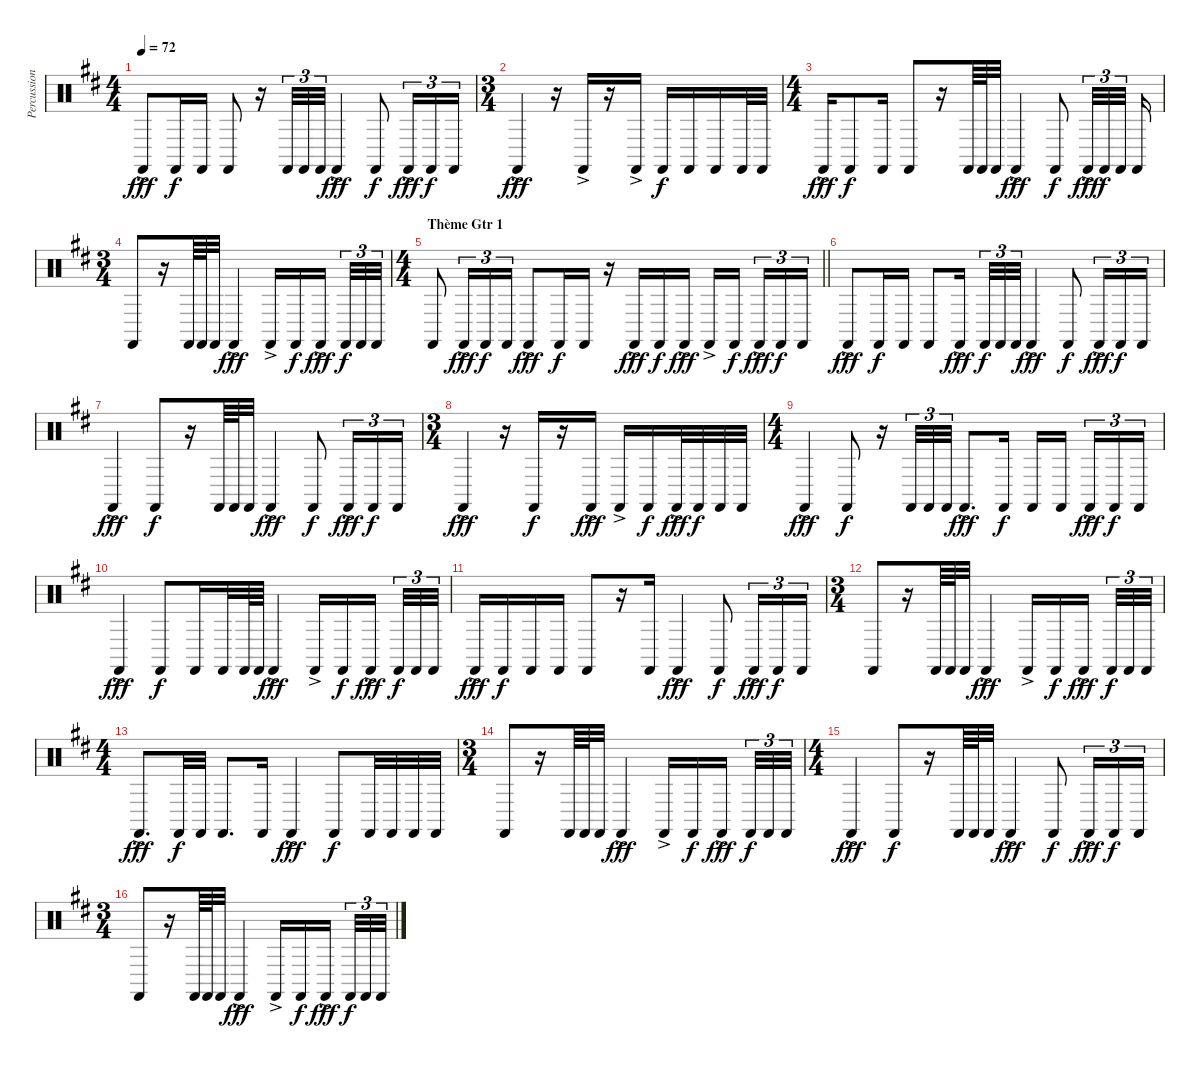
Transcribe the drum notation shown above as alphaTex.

\track ("Percussions" "Percussion") {instrument percussion}
\staff {score}
\articulation defaults
\ts (4 4)
\tempo 72
\clef neutral
\ks bminor "Castanets (hit)"{ac}.8{dy fff} "Castanets (hit)".16{dy f} "Castanets (hit)".16 "Castanets (hit)".8
r.16 "Castanets (hit)".32{tu (3 2)} "Castanets (hit)".32{tu (3 2)} "Castanets (hit)".32{tu (3 2)} "Castanets (hit)"{ac}.4{dy fff} "Castanets (hit)".8{dy f} "Castanets (hit)"{ac}.16{tu (3 2) dy fff} "Castanets (hit)".16{tu (3 2) dy f} "Castanets (hit)".16{tu (3 2)} |
\ts (3 4)
"Castanets (hit)"{ac}.4{dy fff} r.16 "Castanets (hit)"{ac}.16 r.16 "Castanets (hit)"{ac}.16 "Castanets (hit)".16{dy f} "Castanets (hit)".16 "Castanets (hit)".16 "Castanets (hit)".32 "Castanets (hit)".32 |
\ts (4 4)
"Castanets (hit)"{ac}.16{dy fff} "Castanets (hit)".8{dy f} "Castanets (hit)".16 "Castanets (hit)".8 r.16 "Castanets (hit)".64 "Castanets (hit)".64 "Castanets (hit)".32 "Castanets (hit)"{ac}.4{dy fff} "Castanets (hit)".8{dy f} "Castanets (hit)"{ac}.32{tu (3 2) dy fff} "Castanets (hit)".32{tu (3 2) dy f} "Castanets (hit)".32{tu (3 2)} "Castanets (hit)".16 |
\ts (3 4)
"Castanets (hit)".8 r.16 "Castanets (hit)".64 "Castanets (hit)".64 "Castanets (hit)".32 "Castanets (hit)"{ac}.4{dy fff} "Castanets (hit)"{ac}.16 "Castanets (hit)".16{dy f} "Castanets (hit)"{ac}.16{dy fff} "Castanets (hit)".32{tu (3 2) dy f} "Castanets (hit)".32{tu (3 2)} "Castanets (hit)".32{tu (3 2)} |
\ts (4 4)
\section ("" "Thème Gtr 1 ")
\barLineRight lightlight "Castanets (hit)".8{volume 9 balance 8} "Castanets (hit)"{ac}.16{tu (3 2) dy fff} "Castanets (hit)".16{tu (3 2) dy f} "Castanets (hit)".16{tu (3 2)} "Castanets (hit)"{ac}.8{dy fff} "Castanets (hit)".16{dy f} "Castanets (hit)".16
r.16 "Castanets (hit)"{ac}.16{dy fff} "Castanets (hit)".16{dy f} "Castanets (hit)"{ac}.16{dy fff} "Castanets (hit)"{ac}.16 "Castanets (hit)".16{dy f} "Castanets (hit)"{ac}.16{tu (3 2) dy fff} "Castanets (hit)".16{tu (3 2) dy f} "Castanets (hit)".16{tu (3 2)} |
"Castanets (hit)"{ac}.8{dy fff} "Castanets (hit)".16{dy f} "Castanets (hit)".16 "Castanets (hit)".8 "Castanets (hit)"{ac}.16{dy fff} "Castanets (hit)".32{tu (3 2) dy f} "Castanets (hit)".32{tu (3 2)} "Castanets (hit)".32{tu (3 2)} "Castanets (hit)"{ac}.4{dy fff} "Castanets (hit)".8{dy f} "Castanets (hit)"{ac}.16{tu (3 2) dy fff} "Castanets (hit)".16{tu (3 2) dy f} "Castanets (hit)".16{tu (3 2)} |
"Castanets (hit)"{ac}.4{dy fff} "Castanets (hit)".8{dy f} r.16 "Castanets (hit)".64 "Castanets (hit)".64 "Castanets (hit)".32 "Castanets (hit)"{ac}.4{dy fff} "Castanets (hit)".8{dy f} "Castanets (hit)"{ac}.16{tu (3 2) dy fff} "Castanets (hit)".16{tu (3 2) dy f} "Castanets (hit)".16{tu (3 2)} |
\ts (3 4)
"Castanets (hit)"{ac}.4{dy fff} r.16 "Castanets (hit)".16{dy f} r.16 "Castanets (hit)"{ac}.16{dy fff} "Castanets (hit)"{ac}.16 "Castanets (hit)".16{dy f} "Castanets (hit)"{ac}.32{dy fff} "Castanets (hit)".32{dy f} "Castanets (hit)".32 "Castanets (hit)".32 |
\ts (4 4)
"Castanets (hit)"{ac}.4{dy fff} "Castanets (hit)".8{dy f} r.16 "Castanets (hit)".32{tu (3 2)} "Castanets (hit)".32{tu (3 2)} "Castanets (hit)".32{tu (3 2)} "Castanets (hit)"{ac}.8{d dy fff} "Castanets (hit)".16{dy f} "Castanets (hit)".16 "Castanets (hit)".16 "Castanets (hit)"{ac}.16{tu (3 2) dy fff} "Castanets (hit)".16{tu (3 2) dy f} "Castanets (hit)".16{tu (3 2)} |
"Castanets (hit)"{ac}.4{dy fff} "Castanets (hit)".8{dy f} "Castanets (hit)".16 "Castanets (hit)".32 "Castanets (hit)".64 "Castanets (hit)".64 "Castanets (hit)"{ac}.4{dy fff} "Castanets (hit)"{ac}.16 "Castanets (hit)".16{dy f} "Castanets (hit)"{ac}.16{dy fff} "Castanets (hit)".32{tu (3 2) dy f} "Castanets (hit)".32{tu (3 2)} "Castanets (hit)".32{tu (3 2)} |
"Castanets (hit)"{ac}.16{dy fff} "Castanets (hit)".16{dy f} "Castanets (hit)".16 "Castanets (hit)".16 "Castanets (hit)".8 r.16 "Castanets (hit)".16 "Castanets (hit)"{ac}.4{dy fff} "Castanets (hit)".8{dy f} "Castanets (hit)"{ac}.16{tu (3 2) dy fff} "Castanets (hit)".16{tu (3 2) dy f} "Castanets (hit)".16{tu (3 2)} |
\ts (3 4)
"Castanets (hit)".8 r.16 "Castanets (hit)".64 "Castanets (hit)".64 "Castanets (hit)".32 "Castanets (hit)"{ac}.4{dy fff} "Castanets (hit)"{ac}.16 "Castanets (hit)".16{dy f} "Castanets (hit)"{ac}.16{dy fff} "Castanets (hit)".32{tu (3 2) dy f} "Castanets (hit)".32{tu (3 2)} "Castanets (hit)".32{tu (3 2)} |
\ts (4 4)
"Castanets (hit)"{ac}.8{d dy fff} "Castanets (hit)".32{dy f} "Castanets (hit)".32 "Castanets (hit)".8{d} "Castanets (hit)".16 "Castanets (hit)"{ac}.4{dy fff} "Castanets (hit)".8{dy f} "Castanets (hit)".32 "Castanets (hit)".32 "Castanets (hit)".32 "Castanets (hit)".32 |
\ts (3 4)
"Castanets (hit)".8 r.16 "Castanets (hit)".64 "Castanets (hit)".64 "Castanets (hit)".32 "Castanets (hit)"{ac}.4{dy fff} "Castanets (hit)"{ac}.16 "Castanets (hit)".16{dy f} "Castanets (hit)"{ac}.16{dy fff} "Castanets (hit)".32{tu (3 2) dy f} "Castanets (hit)".32{tu (3 2)} "Castanets (hit)".32{tu (3 2)} |
\ts (4 4)
"Castanets (hit)"{ac}.4{dy fff} "Castanets (hit)".8{dy f} r.16 "Castanets (hit)".64 "Castanets (hit)".64 "Castanets (hit)".32 "Castanets (hit)"{ac}.4{dy fff} "Castanets (hit)".8{dy f} "Castanets (hit)"{ac}.16{tu (3 2) dy fff} "Castanets (hit)".16{tu (3 2) dy f} "Castanets (hit)".16{tu (3 2)} |
\ts (3 4)
"Castanets (hit)".8 r.16 "Castanets (hit)".64 "Castanets (hit)".64 "Castanets (hit)".32 "Castanets (hit)"{ac}.4{dy fff} "Castanets (hit)"{ac}.16 "Castanets (hit)".16{dy f} "Castanets (hit)"{ac}.16{dy fff} "Castanets (hit)".32{tu (3 2) dy f} "Castanets (hit)".32{tu (3 2)} "Castanets (hit)".32{tu (3 2)}
